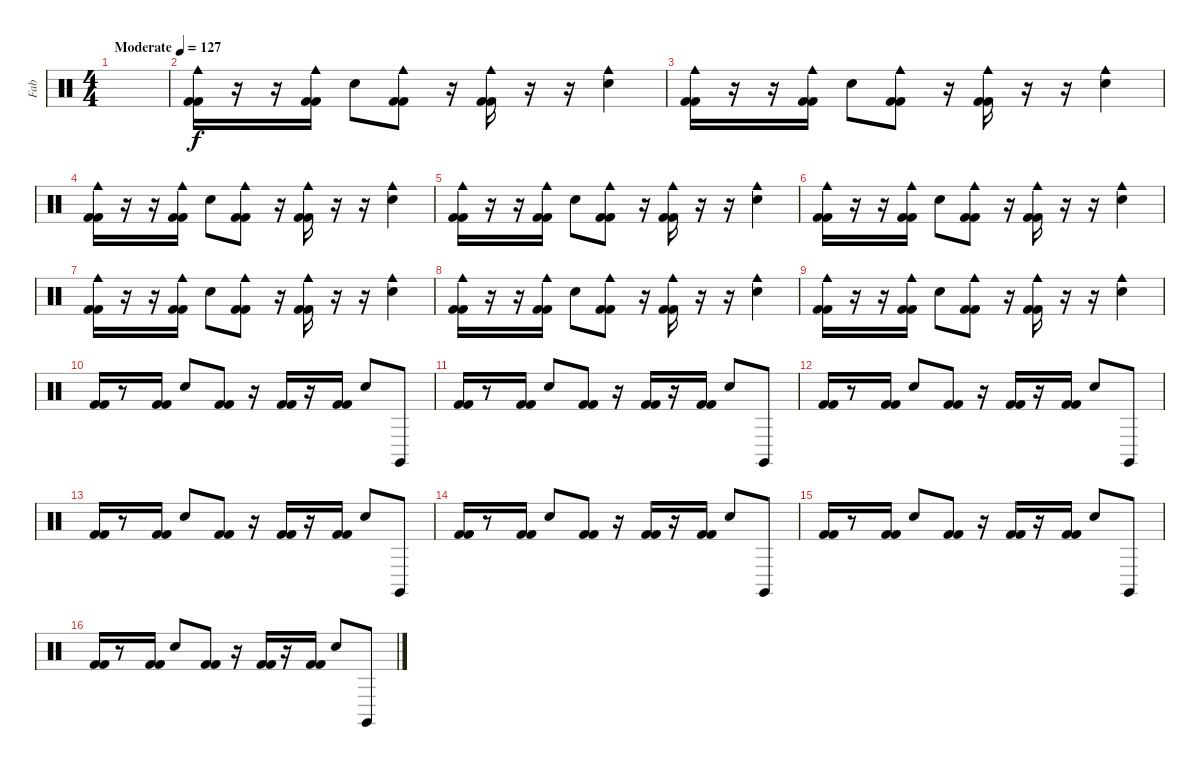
\track ("Fab" "Fab") {instrument percussion}
\staff {score}
\articulation defaults
\ts (4 4)
\tempo (127 "Moderate")
\clef neutral
\ks c
|
("Kick (hit) 2" "Kick (hit) 2" "Cowbell medium (hit)").16 r.16 r.16 ("Kick (hit) 2" "Kick (hit) 2" "Cowbell medium (hit)").16 "Electric Snare (hit)".8 ("Kick (hit) 2" "Kick (hit) 2" "Cowbell medium (hit)").8 r.16 ("Kick (hit) 2" "Kick (hit) 2" "Cowbell medium (hit)").16 r.16 r.16 ("Electric Snare (hit)" "Cowbell medium (hit)").4 |
("Kick (hit) 2" "Kick (hit) 2" "Cowbell medium (hit)").16 r.16 r.16 ("Kick (hit) 2" "Kick (hit) 2" "Cowbell medium (hit)").16 "Electric Snare (hit)".8 ("Kick (hit) 2" "Kick (hit) 2" "Cowbell medium (hit)").8 r.16 ("Kick (hit) 2" "Kick (hit) 2" "Cowbell medium (hit)").16 r.16 r.16 ("Electric Snare (hit)" "Cowbell medium (hit)").4 |
("Kick (hit) 2" "Kick (hit) 2" "Cowbell medium (hit)").16 r.16 r.16 ("Kick (hit) 2" "Kick (hit) 2" "Cowbell medium (hit)").16 "Electric Snare (hit)".8 ("Kick (hit) 2" "Kick (hit) 2" "Cowbell medium (hit)").8 r.16 ("Kick (hit) 2" "Kick (hit) 2" "Cowbell medium (hit)").16 r.16 r.16 ("Electric Snare (hit)" "Cowbell medium (hit)").4 |
("Kick (hit) 2" "Kick (hit) 2" "Cowbell medium (hit)").16 r.16 r.16 ("Kick (hit) 2" "Kick (hit) 2" "Cowbell medium (hit)").16 "Electric Snare (hit)".8 ("Kick (hit) 2" "Kick (hit) 2" "Cowbell medium (hit)").8 r.16 ("Kick (hit) 2" "Kick (hit) 2" "Cowbell medium (hit)").16 r.16 r.16 ("Electric Snare (hit)" "Cowbell medium (hit)").4 |
("Kick (hit) 2" "Kick (hit) 2" "Cowbell medium (hit)").16 r.16 r.16 ("Kick (hit) 2" "Kick (hit) 2" "Cowbell medium (hit)").16 "Electric Snare (hit)".8 ("Kick (hit) 2" "Kick (hit) 2" "Cowbell medium (hit)").8 r.16 ("Kick (hit) 2" "Kick (hit) 2" "Cowbell medium (hit)").16 r.16 r.16 ("Electric Snare (hit)" "Cowbell medium (hit)").4 |
("Kick (hit) 2" "Kick (hit) 2" "Cowbell medium (hit)").16 r.16 r.16 ("Kick (hit) 2" "Kick (hit) 2" "Cowbell medium (hit)").16 "Electric Snare (hit)".8 ("Kick (hit) 2" "Kick (hit) 2" "Cowbell medium (hit)").8 r.16 ("Kick (hit) 2" "Kick (hit) 2" "Cowbell medium (hit)").16 r.16 r.16 ("Electric Snare (hit)" "Cowbell medium (hit)").4 |
("Kick (hit) 2" "Kick (hit) 2" "Cowbell medium (hit)").16 r.16 r.16 ("Kick (hit) 2" "Kick (hit) 2" "Cowbell medium (hit)").16 "Electric Snare (hit)".8 ("Kick (hit) 2" "Kick (hit) 2" "Cowbell medium (hit)").8 r.16 ("Kick (hit) 2" "Kick (hit) 2" "Cowbell medium (hit)").16 r.16 r.16 ("Electric Snare (hit)" "Cowbell medium (hit)").4 |
("Kick (hit) 2" "Kick (hit) 2" "Cowbell medium (hit)").16 r.16 r.16 ("Kick (hit) 2" "Kick (hit) 2" "Cowbell medium (hit)").16 "Electric Snare (hit)".8 ("Kick (hit) 2" "Kick (hit) 2" "Cowbell medium (hit)").8 r.16 ("Kick (hit) 2" "Kick (hit) 2" "Cowbell medium (hit)").16 r.16 r.16 ("Electric Snare (hit)" "Cowbell medium (hit)").4 |
("Kick (hit) 2" "Kick (hit) 2").16 r.8 ("Kick (hit) 2" "Kick (hit) 2").16 "Electric Snare (hit)".8 ("Kick (hit) 2" "Kick (hit) 2").8 r.16 ("Kick (hit) 2" "Kick (hit) 2").16 r.16 ("Kick (hit) 2" "Kick (hit) 2").16 "Electric Snare (hit)".8 "Claves (hit)".8 |
("Kick (hit) 2" "Kick (hit) 2").16 r.8 ("Kick (hit) 2" "Kick (hit) 2").16 "Electric Snare (hit)".8 ("Kick (hit) 2" "Kick (hit) 2").8 r.16 ("Kick (hit) 2" "Kick (hit) 2").16 r.16 ("Kick (hit) 2" "Kick (hit) 2").16 "Electric Snare (hit)".8 "Claves (hit)".8 |
("Kick (hit) 2" "Kick (hit) 2").16 r.8 ("Kick (hit) 2" "Kick (hit) 2").16 "Electric Snare (hit)".8 ("Kick (hit) 2" "Kick (hit) 2").8 r.16 ("Kick (hit) 2" "Kick (hit) 2").16 r.16 ("Kick (hit) 2" "Kick (hit) 2").16 "Electric Snare (hit)".8 "Claves (hit)".8 |
("Kick (hit) 2" "Kick (hit) 2").16 r.8 ("Kick (hit) 2" "Kick (hit) 2").16 "Electric Snare (hit)".8 ("Kick (hit) 2" "Kick (hit) 2").8 r.16 ("Kick (hit) 2" "Kick (hit) 2").16 r.16 ("Kick (hit) 2" "Kick (hit) 2").16 "Electric Snare (hit)".8 "Claves (hit)".8 |
("Kick (hit) 2" "Kick (hit) 2").16 r.8 ("Kick (hit) 2" "Kick (hit) 2").16 "Electric Snare (hit)".8 ("Kick (hit) 2" "Kick (hit) 2").8 r.16 ("Kick (hit) 2" "Kick (hit) 2").16 r.16 ("Kick (hit) 2" "Kick (hit) 2").16 "Electric Snare (hit)".8 "Claves (hit)".8 |
("Kick (hit) 2" "Kick (hit) 2").16 r.8 ("Kick (hit) 2" "Kick (hit) 2").16 "Electric Snare (hit)".8 ("Kick (hit) 2" "Kick (hit) 2").8 r.16 ("Kick (hit) 2" "Kick (hit) 2").16 r.16 ("Kick (hit) 2" "Kick (hit) 2").16 "Electric Snare (hit)".8 "Claves (hit)".8 |
("Kick (hit) 2" "Kick (hit) 2").16 r.8 ("Kick (hit) 2" "Kick (hit) 2").16 "Electric Snare (hit)".8 ("Kick (hit) 2" "Kick (hit) 2").8 r.16 ("Kick (hit) 2" "Kick (hit) 2").16 r.16 ("Kick (hit) 2" "Kick (hit) 2").16 "Electric Snare (hit)".8 "Claves (hit)".8
